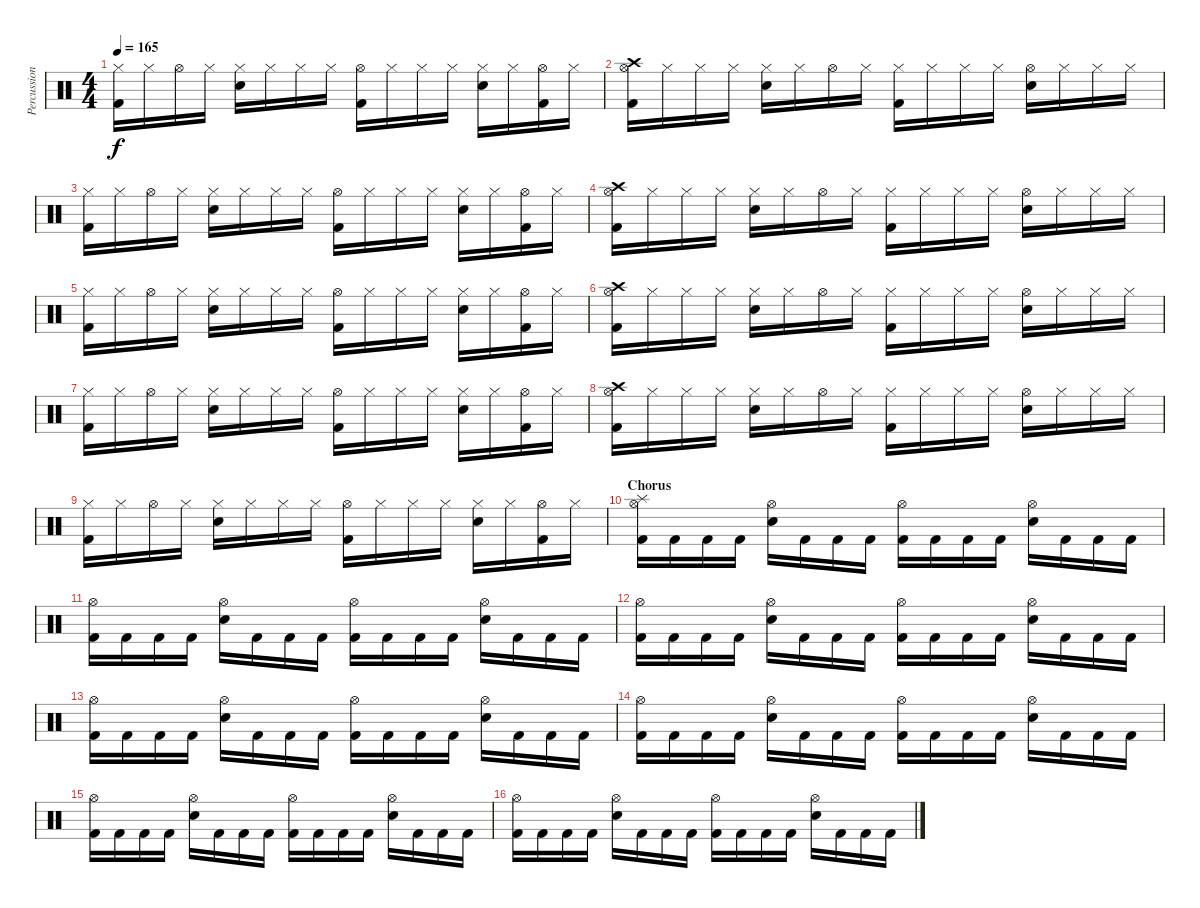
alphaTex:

\track ("Percussions" "Percussion") {instrument percussion}
\staff {score}
\articulation defaults
\ts (4 4)
\tempo 165
\clef neutral
\ks c
("Hi-Hat (closed)" "Kick (hit) 2").16{dy f} "Hi-Hat (closed)".16 "Hi-Hat (open)".16 "Hi-Hat (closed)".16 ("Hi-Hat (closed)" "Electric Snare (hit)").16 "Hi-Hat (closed)".16 "Hi-Hat (closed)".16 "Hi-Hat (closed)".16 ("Hi-Hat (open)" "Kick (hit) 2").16 "Hi-Hat (closed)".16 "Hi-Hat (closed)".16 "Hi-Hat (closed)".16 ("Hi-Hat (closed)" "Electric Snare (hit)").16 "Hi-Hat (closed)".16 ("Hi-Hat (open)" "Kick (hit) 2").16 "Hi-Hat (closed)".16 |
("Hi-Hat (open)" "Crash high (hit)" "Kick (hit) 2").16 "Hi-Hat (closed)".16 "Hi-Hat (closed)".16 "Hi-Hat (closed)".16 ("Hi-Hat (closed)" "Electric Snare (hit)").16 "Hi-Hat (closed)".16 "Hi-Hat (open)".16 "Hi-Hat (closed)".16 ("Hi-Hat (closed)" "Kick (hit) 2").16 "Hi-Hat (closed)".16 "Hi-Hat (closed)".16 "Hi-Hat (closed)".16 ("Hi-Hat (open)" "Electric Snare (hit)").16 "Hi-Hat (closed)".16 "Hi-Hat (closed)".16 "Hi-Hat (closed)".16 |
("Hi-Hat (closed)" "Kick (hit) 2").16 "Hi-Hat (closed)".16 "Hi-Hat (open)".16 "Hi-Hat (closed)".16 ("Hi-Hat (closed)" "Electric Snare (hit)").16 "Hi-Hat (closed)".16 "Hi-Hat (closed)".16 "Hi-Hat (closed)".16 ("Hi-Hat (open)" "Kick (hit) 2").16 "Hi-Hat (closed)".16 "Hi-Hat (closed)".16 "Hi-Hat (closed)".16 ("Hi-Hat (closed)" "Electric Snare (hit)").16 "Hi-Hat (closed)".16 ("Hi-Hat (open)" "Kick (hit) 2").16 "Hi-Hat (closed)".16 |
("Hi-Hat (open)" "Crash high (hit)" "Kick (hit) 2").16 "Hi-Hat (closed)".16 "Hi-Hat (closed)".16 "Hi-Hat (closed)".16 ("Hi-Hat (closed)" "Electric Snare (hit)").16 "Hi-Hat (closed)".16 "Hi-Hat (open)".16 "Hi-Hat (closed)".16 ("Hi-Hat (closed)" "Kick (hit) 2").16 "Hi-Hat (closed)".16 "Hi-Hat (closed)".16 "Hi-Hat (closed)".16 ("Hi-Hat (open)" "Electric Snare (hit)").16 "Hi-Hat (closed)".16 "Hi-Hat (closed)".16 "Hi-Hat (closed)".16 |
("Hi-Hat (closed)" "Kick (hit) 2").16 "Hi-Hat (closed)".16 "Hi-Hat (open)".16 "Hi-Hat (closed)".16 ("Hi-Hat (closed)" "Electric Snare (hit)").16 "Hi-Hat (closed)".16 "Hi-Hat (closed)".16 "Hi-Hat (closed)".16 ("Hi-Hat (open)" "Kick (hit) 2").16 "Hi-Hat (closed)".16 "Hi-Hat (closed)".16 "Hi-Hat (closed)".16 ("Hi-Hat (closed)" "Electric Snare (hit)").16 "Hi-Hat (closed)".16 ("Hi-Hat (open)" "Kick (hit) 2").16 "Hi-Hat (closed)".16 |
("Hi-Hat (open)" "Crash high (hit)" "Kick (hit) 2").16 "Hi-Hat (closed)".16 "Hi-Hat (closed)".16 "Hi-Hat (closed)".16 ("Hi-Hat (closed)" "Electric Snare (hit)").16 "Hi-Hat (closed)".16 "Hi-Hat (open)".16 "Hi-Hat (closed)".16 ("Hi-Hat (closed)" "Kick (hit) 2").16 "Hi-Hat (closed)".16 "Hi-Hat (closed)".16 "Hi-Hat (closed)".16 ("Hi-Hat (open)" "Electric Snare (hit)").16 "Hi-Hat (closed)".16 "Hi-Hat (closed)".16 "Hi-Hat (closed)".16 |
("Hi-Hat (closed)" "Kick (hit) 2").16 "Hi-Hat (closed)".16 "Hi-Hat (open)".16 "Hi-Hat (closed)".16 ("Hi-Hat (closed)" "Electric Snare (hit)").16 "Hi-Hat (closed)".16 "Hi-Hat (closed)".16 "Hi-Hat (closed)".16 ("Hi-Hat (open)" "Kick (hit) 2").16 "Hi-Hat (closed)".16 "Hi-Hat (closed)".16 "Hi-Hat (closed)".16 ("Hi-Hat (closed)" "Electric Snare (hit)").16 "Hi-Hat (closed)".16 ("Hi-Hat (open)" "Kick (hit) 2").16 "Hi-Hat (closed)".16 |
("Hi-Hat (open)" "Crash high (hit)" "Kick (hit) 2").16 "Hi-Hat (closed)".16 "Hi-Hat (closed)".16 "Hi-Hat (closed)".16 ("Hi-Hat (closed)" "Electric Snare (hit)").16 "Hi-Hat (closed)".16 "Hi-Hat (open)".16 "Hi-Hat (closed)".16 ("Hi-Hat (closed)" "Kick (hit) 2").16 "Hi-Hat (closed)".16 "Hi-Hat (closed)".16 "Hi-Hat (closed)".16 ("Hi-Hat (open)" "Electric Snare (hit)").16 "Hi-Hat (closed)".16 "Hi-Hat (closed)".16 "Hi-Hat (closed)".16 |
("Hi-Hat (closed)" "Kick (hit) 2").16 "Hi-Hat (closed)".16 "Hi-Hat (open)".16 "Hi-Hat (closed)".16 ("Hi-Hat (closed)" "Electric Snare (hit)").16 "Hi-Hat (closed)".16 "Hi-Hat (closed)".16 "Hi-Hat (closed)".16 ("Hi-Hat (open)" "Kick (hit) 2").16 "Hi-Hat (closed)".16 "Hi-Hat (closed)".16 "Hi-Hat (closed)".16 ("Hi-Hat (closed)" "Electric Snare (hit)").16 "Hi-Hat (closed)".16 ("Hi-Hat (open)" "Kick (hit) 2").16 "Hi-Hat (closed)".16 |
\section ("" "Chorus")
("Splash (hit)" "Hi-Hat (open)" "Kick (hit) 2").16 "Kick (hit) 2".16 "Kick (hit) 2".16 "Kick (hit) 2".16 ("Hi-Hat (open)" "Electric Snare (hit)").16 "Kick (hit) 2".16 "Kick (hit) 2".16 "Kick (hit) 2".16 ("Hi-Hat (open)" "Kick (hit) 2").16 "Kick (hit) 2".16 "Kick (hit) 2".16 "Kick (hit) 2".16 ("Hi-Hat (open)" "Electric Snare (hit)").16 "Kick (hit) 2".16 "Kick (hit) 2".16 "Kick (hit) 2".16 |
("Hi-Hat (open)" "Kick (hit) 2").16 "Kick (hit) 2".16 "Kick (hit) 2".16 "Kick (hit) 2".16 ("Hi-Hat (open)" "Electric Snare (hit)").16 "Kick (hit) 2".16 "Kick (hit) 2".16 "Kick (hit) 2".16 ("Hi-Hat (open)" "Kick (hit) 2").16 "Kick (hit) 2".16 "Kick (hit) 2".16 "Kick (hit) 2".16 ("Hi-Hat (open)" "Electric Snare (hit)").16 "Kick (hit) 2".16 "Kick (hit) 2".16 "Kick (hit) 2".16 |
("Hi-Hat (open)" "Kick (hit) 2").16 "Kick (hit) 2".16 "Kick (hit) 2".16 "Kick (hit) 2".16 ("Hi-Hat (open)" "Electric Snare (hit)").16 "Kick (hit) 2".16 "Kick (hit) 2".16 "Kick (hit) 2".16 ("Hi-Hat (open)" "Kick (hit) 2").16 "Kick (hit) 2".16 "Kick (hit) 2".16 "Kick (hit) 2".16 ("Hi-Hat (open)" "Electric Snare (hit)").16 "Kick (hit) 2".16 "Kick (hit) 2".16 "Kick (hit) 2".16 |
("Hi-Hat (open)" "Kick (hit) 2").16 "Kick (hit) 2".16 "Kick (hit) 2".16 "Kick (hit) 2".16 ("Hi-Hat (open)" "Electric Snare (hit)").16 "Kick (hit) 2".16 "Kick (hit) 2".16 "Kick (hit) 2".16 ("Hi-Hat (open)" "Kick (hit) 2").16 "Kick (hit) 2".16 "Kick (hit) 2".16 "Kick (hit) 2".16 ("Hi-Hat (open)" "Electric Snare (hit)").16 "Kick (hit) 2".16 "Kick (hit) 2".16 "Kick (hit) 2".16 |
("Hi-Hat (open)" "Kick (hit) 2").16 "Kick (hit) 2".16 "Kick (hit) 2".16 "Kick (hit) 2".16 ("Hi-Hat (open)" "Electric Snare (hit)").16 "Kick (hit) 2".16 "Kick (hit) 2".16 "Kick (hit) 2".16 ("Hi-Hat (open)" "Kick (hit) 2").16 "Kick (hit) 2".16 "Kick (hit) 2".16 "Kick (hit) 2".16 ("Hi-Hat (open)" "Electric Snare (hit)").16 "Kick (hit) 2".16 "Kick (hit) 2".16 "Kick (hit) 2".16 |
("Hi-Hat (open)" "Kick (hit) 2").16 "Kick (hit) 2".16 "Kick (hit) 2".16 "Kick (hit) 2".16 ("Hi-Hat (open)" "Electric Snare (hit)").16 "Kick (hit) 2".16 "Kick (hit) 2".16 "Kick (hit) 2".16 ("Hi-Hat (open)" "Kick (hit) 2").16 "Kick (hit) 2".16 "Kick (hit) 2".16 "Kick (hit) 2".16 ("Hi-Hat (open)" "Electric Snare (hit)").16 "Kick (hit) 2".16 "Kick (hit) 2".16 "Kick (hit) 2".16 |
("Hi-Hat (open)" "Kick (hit) 2").16 "Kick (hit) 2".16 "Kick (hit) 2".16 "Kick (hit) 2".16 ("Hi-Hat (open)" "Electric Snare (hit)").16 "Kick (hit) 2".16 "Kick (hit) 2".16 "Kick (hit) 2".16 ("Hi-Hat (open)" "Kick (hit) 2").16 "Kick (hit) 2".16 "Kick (hit) 2".16 "Kick (hit) 2".16 ("Hi-Hat (open)" "Electric Snare (hit)").16 "Kick (hit) 2".16 "Kick (hit) 2".16 "Kick (hit) 2".16
